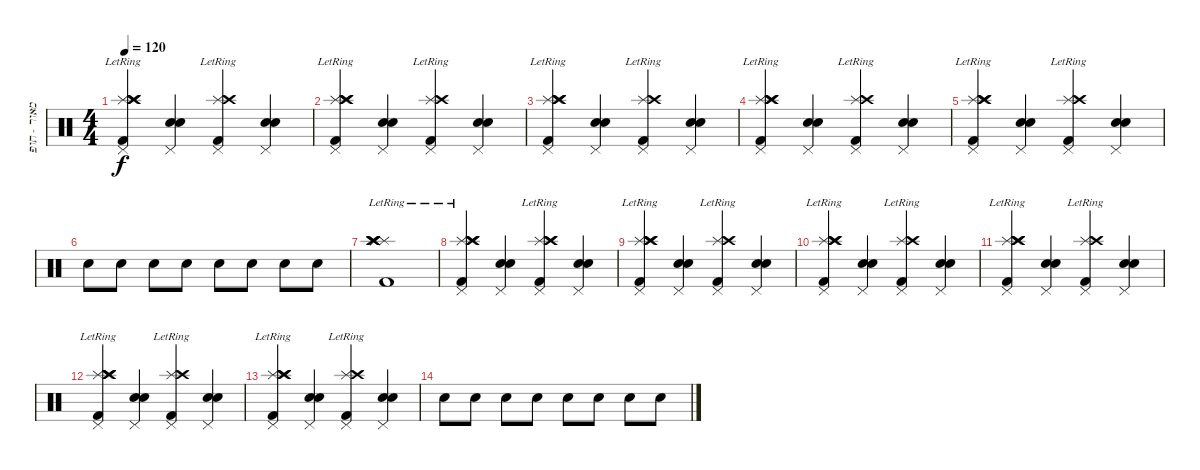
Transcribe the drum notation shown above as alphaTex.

\track ("מאור - תופים" "מאור - תופ") {instrument percussion}
\staff {score}
\articulation defaults
\ts (4 4)
\tempo 120
\clef neutral
\ks c
("Kick (hit) 2" "Splash (hit)" "Splash (hit)"{lr} "Crash high (hit)"{lr} "Crash high (hit)" "Pedal Hi-Hat (hit)").4{dy f} ("Electric Snare (hit)" "Electric Snare (hit)" "Pedal Hi-Hat (hit)").4 ("Kick (hit) 2" "Splash (hit)"{lr} "Crash high (hit)"{lr} "Pedal Hi-Hat (hit)").4 ("Electric Snare (hit)" "Electric Snare (hit)" "Pedal Hi-Hat (hit)").4 |
("Kick (hit) 2" "Splash (hit)" "Splash (hit)"{lr} "Crash high (hit)"{lr} "Crash high (hit)" "Pedal Hi-Hat (hit)").4 ("Electric Snare (hit)" "Electric Snare (hit)" "Pedal Hi-Hat (hit)").4 ("Kick (hit) 2" "Splash (hit)"{lr} "Crash high (hit)"{lr} "Pedal Hi-Hat (hit)").4 ("Electric Snare (hit)" "Electric Snare (hit)" "Pedal Hi-Hat (hit)").4 |
("Kick (hit) 2" "Splash (hit)" "Splash (hit)"{lr} "Crash high (hit)"{lr} "Crash high (hit)" "Pedal Hi-Hat (hit)").4 ("Electric Snare (hit)" "Electric Snare (hit)" "Pedal Hi-Hat (hit)").4 ("Kick (hit) 2" "Splash (hit)"{lr} "Crash high (hit)"{lr} "Pedal Hi-Hat (hit)").4 ("Electric Snare (hit)" "Electric Snare (hit)" "Pedal Hi-Hat (hit)").4 |
("Kick (hit) 2" "Splash (hit)" "Splash (hit)"{lr} "Crash high (hit)"{lr} "Crash high (hit)" "Pedal Hi-Hat (hit)").4 ("Electric Snare (hit)" "Electric Snare (hit)" "Pedal Hi-Hat (hit)").4 ("Kick (hit) 2" "Splash (hit)"{lr} "Crash high (hit)"{lr} "Pedal Hi-Hat (hit)").4 ("Electric Snare (hit)" "Electric Snare (hit)" "Pedal Hi-Hat (hit)").4 |
("Kick (hit) 2" "Splash (hit)" "Splash (hit)"{lr} "Crash high (hit)"{lr} "Crash high (hit)" "Pedal Hi-Hat (hit)").4 ("Electric Snare (hit)" "Electric Snare (hit)" "Pedal Hi-Hat (hit)").4 ("Kick (hit) 2" "Splash (hit)"{lr} "Crash high (hit)"{lr} "Pedal Hi-Hat (hit)").4 ("Electric Snare (hit)" "Electric Snare (hit)" "Pedal Hi-Hat (hit)").4 |
"Electric Snare (hit)".8 "Electric Snare (hit)".8 "Electric Snare (hit)".8 "Electric Snare (hit)".8 "Electric Snare (hit)".8 "Electric Snare (hit)".8 "Electric Snare (hit)".8 "Electric Snare (hit)".8 |
("Kick (hit) 2"{lr} "Splash (hit)"{lr} "Crash high (hit)"{lr} "Splash (hit)"{lr} "Splash (hit)"{lr} "Crash high (hit)"{lr}).1 |
("Kick (hit) 2" "Splash (hit)" "Splash (hit)"{lr} "Crash high (hit)"{lr} "Crash high (hit)" "Pedal Hi-Hat (hit)").4 ("Electric Snare (hit)" "Electric Snare (hit)" "Pedal Hi-Hat (hit)").4 ("Kick (hit) 2" "Splash (hit)"{lr} "Crash high (hit)"{lr} "Crash high (hit)"{lr} "Pedal Hi-Hat (hit)").4 ("Electric Snare (hit)" "Electric Snare (hit)" "Pedal Hi-Hat (hit)").4 |
("Kick (hit) 2" "Splash (hit)" "Splash (hit)"{lr} "Crash high (hit)"{lr} "Crash high (hit)" "Pedal Hi-Hat (hit)").4 ("Electric Snare (hit)" "Electric Snare (hit)" "Pedal Hi-Hat (hit)").4 ("Kick (hit) 2" "Splash (hit)"{lr} "Crash high (hit)"{lr} "Pedal Hi-Hat (hit)").4 ("Electric Snare (hit)" "Electric Snare (hit)" "Pedal Hi-Hat (hit)").4 |
("Kick (hit) 2" "Splash (hit)" "Splash (hit)"{lr} "Crash high (hit)"{lr} "Crash high (hit)" "Pedal Hi-Hat (hit)").4 ("Electric Snare (hit)" "Electric Snare (hit)" "Pedal Hi-Hat (hit)").4 ("Kick (hit) 2" "Splash (hit)"{lr} "Crash high (hit)"{lr} "Pedal Hi-Hat (hit)").4 ("Electric Snare (hit)" "Electric Snare (hit)" "Pedal Hi-Hat (hit)").4 |
("Kick (hit) 2" "Splash (hit)" "Splash (hit)"{lr} "Crash high (hit)"{lr} "Crash high (hit)" "Pedal Hi-Hat (hit)").4 ("Electric Snare (hit)" "Electric Snare (hit)" "Pedal Hi-Hat (hit)").4 ("Kick (hit) 2" "Splash (hit)"{lr} "Crash high (hit)"{lr} "Pedal Hi-Hat (hit)").4 ("Electric Snare (hit)" "Electric Snare (hit)" "Pedal Hi-Hat (hit)").4 |
("Kick (hit) 2" "Splash (hit)" "Splash (hit)"{lr} "Crash high (hit)"{lr} "Crash high (hit)" "Pedal Hi-Hat (hit)").4 ("Electric Snare (hit)" "Electric Snare (hit)" "Pedal Hi-Hat (hit)").4 ("Kick (hit) 2" "Splash (hit)"{lr} "Crash high (hit)"{lr} "Pedal Hi-Hat (hit)").4 ("Electric Snare (hit)" "Electric Snare (hit)" "Pedal Hi-Hat (hit)").4 |
("Kick (hit) 2" "Splash (hit)" "Splash (hit)"{lr} "Crash high (hit)"{lr} "Crash high (hit)" "Pedal Hi-Hat (hit)").4 ("Electric Snare (hit)" "Electric Snare (hit)" "Pedal Hi-Hat (hit)").4 ("Kick (hit) 2" "Splash (hit)"{lr} "Crash high (hit)"{lr} "Pedal Hi-Hat (hit)").4 ("Electric Snare (hit)" "Electric Snare (hit)" "Pedal Hi-Hat (hit)").4 |
"Electric Snare (hit)".8 "Electric Snare (hit)".8 "Electric Snare (hit)".8 "Electric Snare (hit)".8 "Electric Snare (hit)".8 "Electric Snare (hit)".8 "Electric Snare (hit)".8 "Electric Snare (hit)".8
